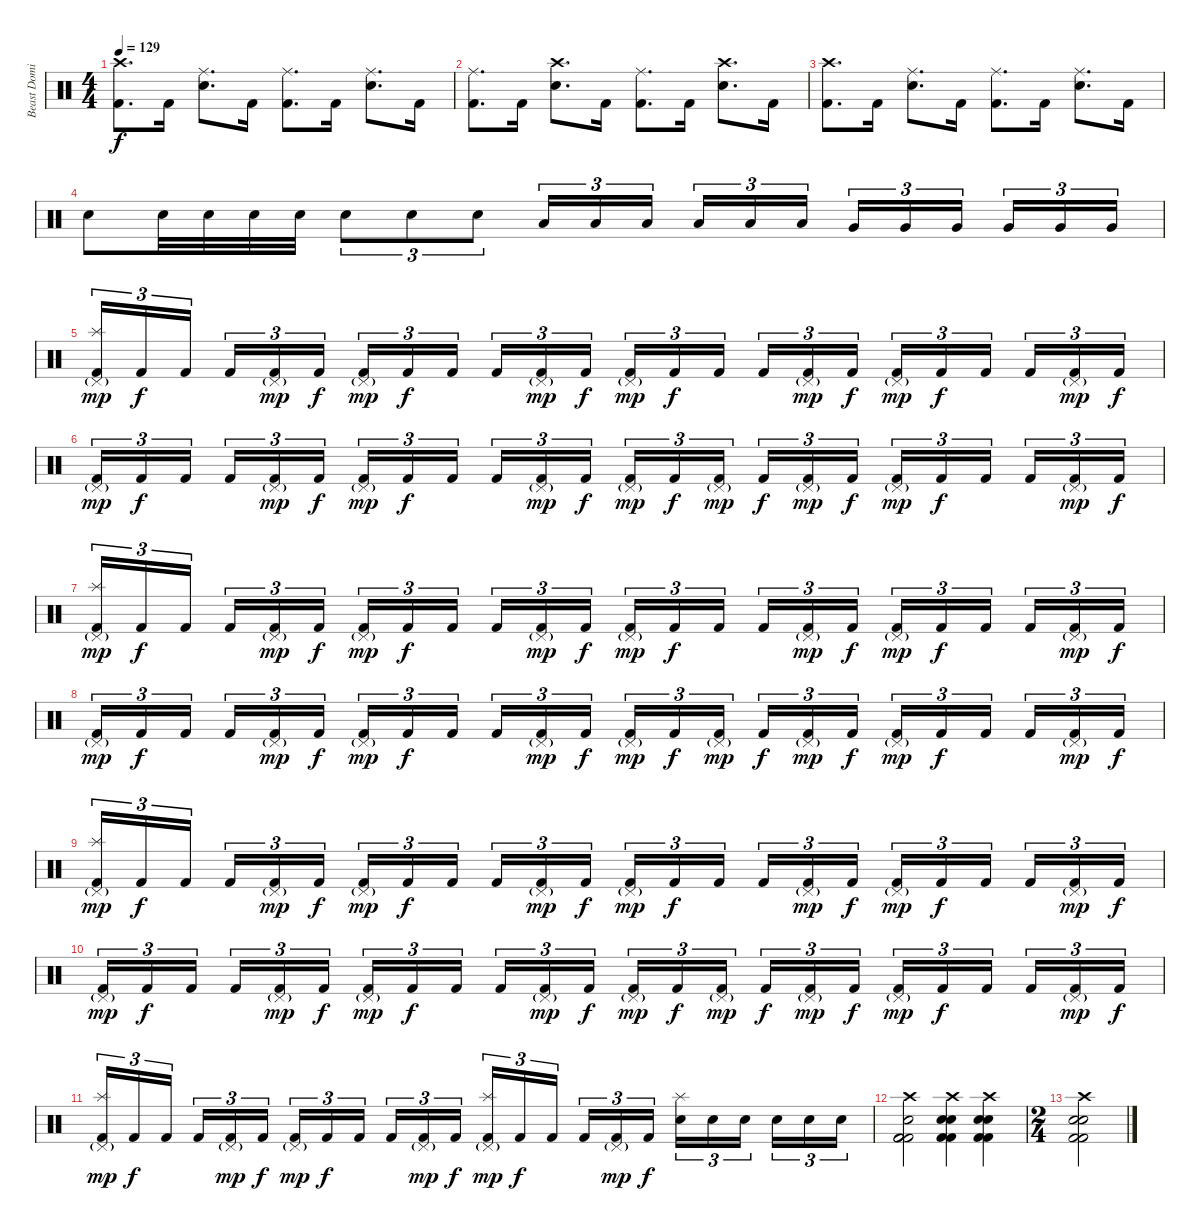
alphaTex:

\track ("Beast Dominator" "Beast Domi") {instrument percussion}
\staff
\articulation defaults
\ts (4 4)
\tempo 129
\clef neutral
\ks c
("Crash high (hit)" "Kick (hit) 2").8{d dy f} "Kick (hit) 2".16 ("Ride (middle)" "Electric Snare (hit)").8{d} "Kick (hit) 2".16 ("Ride (middle)" "Kick (hit) 2").8{d} "Kick (hit) 2".16 ("Ride (middle)" "Electric Snare (hit)").8{d} "Kick (hit) 2".16 |
("Ride (middle)" "Kick (hit) 2").8{d} "Kick (hit) 2".16 ("Crash high (hit)" "Electric Snare (hit)").8{d} "Kick (hit) 2".16 ("Ride (middle)" "Kick (hit) 2").8{d} "Kick (hit) 2".16 ("Crash high (hit)" "Electric Snare (hit)").8{d} "Kick (hit) 2".16 |
("Crash high (hit)" "Kick (hit) 2").8{d} "Kick (hit) 2".16 ("Ride (middle)" "Electric Snare (hit)").8{d} "Kick (hit) 2".16 ("Ride (middle)" "Kick (hit) 2").8{d} "Kick (hit) 2".16 ("Ride (middle)" "Electric Snare (hit)").8{d} "Kick (hit) 2".16 |
"Electric Snare (hit)".8 "Electric Snare (hit)".32 "Electric Snare (hit)".32 "Electric Snare (hit)".32 "Electric Snare (hit)".32 "Electric Snare (hit)".8{tu (3 2)} "Electric Snare (hit)".8{tu (3 2)} "Electric Snare (hit)".8{tu (3 2)} "Low Tom (hit)".16{tu (3 2)} "Low Tom (hit)".16{tu (3 2)} "Low Tom (hit)".16{tu (3 2) beam splitsecondary} "Low Tom (hit)".16{tu (3 2)} "Low Tom (hit)".16{tu (3 2)} "Low Tom (hit)".16{tu (3 2)} "Very Low Tom (hit)".16{tu (3 2)} "Very Low Tom (hit)".16{tu (3 2)} "Very Low Tom (hit)".16{tu (3 2) beam splitsecondary} "Very Low Tom (hit)".16{tu (3 2)} "Very Low Tom (hit)".16{tu (3 2)} "Very Low Tom (hit)".16{tu (3 2)} |
("Splash (hit)" "Pedal Hi-Hat (hit)"{g} "Kick (hit) 2").16{tu (3 2) dy mp} "Kick (hit) 2".16{tu (3 2) dy f} "Kick (hit) 2".16{tu (3 2) beam splitsecondary} "Kick (hit) 2".16{tu (3 2)} ("Pedal Hi-Hat (hit)"{g} "Kick (hit) 2").16{tu (3 2) dy mp} "Kick (hit) 2".16{tu (3 2) dy f} ("Pedal Hi-Hat (hit)"{g} "Kick (hit) 2").16{tu (3 2) dy mp} "Kick (hit) 2".16{tu (3 2) dy f} "Kick (hit) 2".16{tu (3 2) beam splitsecondary} "Kick (hit) 2".16{tu (3 2)} ("Pedal Hi-Hat (hit)"{g} "Kick (hit) 2").16{tu (3 2) dy mp} "Kick (hit) 2".16{tu (3 2) dy f} ("Pedal Hi-Hat (hit)"{g} "Kick (hit) 2").16{tu (3 2) dy mp} "Kick (hit) 2".16{tu (3 2) dy f} "Kick (hit) 2".16{tu (3 2) beam splitsecondary} "Kick (hit) 2".16{tu (3 2)} ("Pedal Hi-Hat (hit)"{g} "Kick (hit) 2").16{tu (3 2) dy mp} "Kick (hit) 2".16{tu (3 2) dy f} ("Pedal Hi-Hat (hit)"{g} "Kick (hit) 2").16{tu (3 2) dy mp} "Kick (hit) 2".16{tu (3 2) dy f} "Kick (hit) 2".16{tu (3 2) beam splitsecondary} "Kick (hit) 2".16{tu (3 2)} ("Pedal Hi-Hat (hit)"{g} "Kick (hit) 2").16{tu (3 2) dy mp} "Kick (hit) 2".16{tu (3 2) dy f} |
("Pedal Hi-Hat (hit)"{g} "Kick (hit) 2").16{tu (3 2) dy mp} "Kick (hit) 2".16{tu (3 2) dy f} "Kick (hit) 2".16{tu (3 2) beam splitsecondary} "Kick (hit) 2".16{tu (3 2)} ("Pedal Hi-Hat (hit)"{g} "Kick (hit) 2").16{tu (3 2) dy mp} "Kick (hit) 2".16{tu (3 2) dy f} ("Pedal Hi-Hat (hit)"{g} "Kick (hit) 2").16{tu (3 2) dy mp} "Kick (hit) 2".16{tu (3 2) dy f} "Kick (hit) 2".16{tu (3 2) beam splitsecondary} "Kick (hit) 2".16{tu (3 2)} ("Pedal Hi-Hat (hit)"{g} "Kick (hit) 2").16{tu (3 2) dy mp} "Kick (hit) 2".16{tu (3 2) dy f} ("Pedal Hi-Hat (hit)"{g} "Kick (hit) 2").16{tu (3 2) dy mp} "Kick (hit) 2".16{tu (3 2) dy f} ("Pedal Hi-Hat (hit)"{g} "Kick (hit) 2").16{tu (3 2) dy mp beam splitsecondary} "Kick (hit) 2".16{tu (3 2) dy f} ("Pedal Hi-Hat (hit)"{g} "Kick (hit) 2").16{tu (3 2) dy mp} "Kick (hit) 2".16{tu (3 2) dy f} ("Pedal Hi-Hat (hit)"{g} "Kick (hit) 2").16{tu (3 2) dy mp} "Kick (hit) 2".16{tu (3 2) dy f} "Kick (hit) 2".16{tu (3 2) beam splitsecondary} "Kick (hit) 2".16{tu (3 2)} ("Pedal Hi-Hat (hit)"{g} "Kick (hit) 2").16{tu (3 2) dy mp} "Kick (hit) 2".16{tu (3 2) dy f} |
("Splash (hit)" "Pedal Hi-Hat (hit)"{g} "Kick (hit) 2").16{tu (3 2) dy mp} "Kick (hit) 2".16{tu (3 2) dy f} "Kick (hit) 2".16{tu (3 2) beam splitsecondary} "Kick (hit) 2".16{tu (3 2)} ("Pedal Hi-Hat (hit)"{g} "Kick (hit) 2").16{tu (3 2) dy mp} "Kick (hit) 2".16{tu (3 2) dy f} ("Pedal Hi-Hat (hit)"{g} "Kick (hit) 2").16{tu (3 2) dy mp} "Kick (hit) 2".16{tu (3 2) dy f} "Kick (hit) 2".16{tu (3 2) beam splitsecondary} "Kick (hit) 2".16{tu (3 2)} ("Pedal Hi-Hat (hit)"{g} "Kick (hit) 2").16{tu (3 2) dy mp} "Kick (hit) 2".16{tu (3 2) dy f} ("Pedal Hi-Hat (hit)"{g} "Kick (hit) 2").16{tu (3 2) dy mp} "Kick (hit) 2".16{tu (3 2) dy f} "Kick (hit) 2".16{tu (3 2) beam splitsecondary} "Kick (hit) 2".16{tu (3 2)} ("Pedal Hi-Hat (hit)"{g} "Kick (hit) 2").16{tu (3 2) dy mp} "Kick (hit) 2".16{tu (3 2) dy f} ("Pedal Hi-Hat (hit)"{g} "Kick (hit) 2").16{tu (3 2) dy mp} "Kick (hit) 2".16{tu (3 2) dy f} "Kick (hit) 2".16{tu (3 2) beam splitsecondary} "Kick (hit) 2".16{tu (3 2)} ("Pedal Hi-Hat (hit)"{g} "Kick (hit) 2").16{tu (3 2) dy mp} "Kick (hit) 2".16{tu (3 2) dy f} |
("Pedal Hi-Hat (hit)"{g} "Kick (hit) 2").16{tu (3 2) dy mp} "Kick (hit) 2".16{tu (3 2) dy f} "Kick (hit) 2".16{tu (3 2) beam splitsecondary} "Kick (hit) 2".16{tu (3 2)} ("Pedal Hi-Hat (hit)"{g} "Kick (hit) 2").16{tu (3 2) dy mp} "Kick (hit) 2".16{tu (3 2) dy f} ("Pedal Hi-Hat (hit)"{g} "Kick (hit) 2").16{tu (3 2) dy mp} "Kick (hit) 2".16{tu (3 2) dy f} "Kick (hit) 2".16{tu (3 2) beam splitsecondary} "Kick (hit) 2".16{tu (3 2)} ("Pedal Hi-Hat (hit)"{g} "Kick (hit) 2").16{tu (3 2) dy mp} "Kick (hit) 2".16{tu (3 2) dy f} ("Pedal Hi-Hat (hit)"{g} "Kick (hit) 2").16{tu (3 2) dy mp} "Kick (hit) 2".16{tu (3 2) dy f} ("Pedal Hi-Hat (hit)"{g} "Kick (hit) 2").16{tu (3 2) dy mp beam splitsecondary} "Kick (hit) 2".16{tu (3 2) dy f} ("Pedal Hi-Hat (hit)"{g} "Kick (hit) 2").16{tu (3 2) dy mp} "Kick (hit) 2".16{tu (3 2) dy f} ("Pedal Hi-Hat (hit)"{g} "Kick (hit) 2").16{tu (3 2) dy mp} "Kick (hit) 2".16{tu (3 2) dy f} "Kick (hit) 2".16{tu (3 2) beam splitsecondary} "Kick (hit) 2".16{tu (3 2)} ("Pedal Hi-Hat (hit)"{g} "Kick (hit) 2").16{tu (3 2) dy mp} "Kick (hit) 2".16{tu (3 2) dy f} |
("Splash (hit)" "Pedal Hi-Hat (hit)"{g} "Kick (hit) 2").16{tu (3 2) dy mp} "Kick (hit) 2".16{tu (3 2) dy f} "Kick (hit) 2".16{tu (3 2) beam splitsecondary} "Kick (hit) 2".16{tu (3 2)} ("Pedal Hi-Hat (hit)"{g} "Kick (hit) 2").16{tu (3 2) dy mp} "Kick (hit) 2".16{tu (3 2) dy f} ("Pedal Hi-Hat (hit)"{g} "Kick (hit) 2").16{tu (3 2) dy mp} "Kick (hit) 2".16{tu (3 2) dy f} "Kick (hit) 2".16{tu (3 2) beam splitsecondary} "Kick (hit) 2".16{tu (3 2)} ("Pedal Hi-Hat (hit)"{g} "Kick (hit) 2").16{tu (3 2) dy mp} "Kick (hit) 2".16{tu (3 2) dy f} ("Pedal Hi-Hat (hit)"{g} "Kick (hit) 2").16{tu (3 2) dy mp} "Kick (hit) 2".16{tu (3 2) dy f} "Kick (hit) 2".16{tu (3 2) beam splitsecondary} "Kick (hit) 2".16{tu (3 2)} ("Pedal Hi-Hat (hit)"{g} "Kick (hit) 2").16{tu (3 2) dy mp} "Kick (hit) 2".16{tu (3 2) dy f} ("Pedal Hi-Hat (hit)"{g} "Kick (hit) 2").16{tu (3 2) dy mp} "Kick (hit) 2".16{tu (3 2) dy f} "Kick (hit) 2".16{tu (3 2) beam splitsecondary} "Kick (hit) 2".16{tu (3 2)} ("Pedal Hi-Hat (hit)"{g} "Kick (hit) 2").16{tu (3 2) dy mp} "Kick (hit) 2".16{tu (3 2) dy f} |
("Pedal Hi-Hat (hit)"{g} "Kick (hit) 2").16{tu (3 2) dy mp} "Kick (hit) 2".16{tu (3 2) dy f} "Kick (hit) 2".16{tu (3 2) beam splitsecondary} "Kick (hit) 2".16{tu (3 2)} ("Pedal Hi-Hat (hit)"{g} "Kick (hit) 2").16{tu (3 2) dy mp} "Kick (hit) 2".16{tu (3 2) dy f} ("Pedal Hi-Hat (hit)"{g} "Kick (hit) 2").16{tu (3 2) dy mp} "Kick (hit) 2".16{tu (3 2) dy f} "Kick (hit) 2".16{tu (3 2) beam splitsecondary} "Kick (hit) 2".16{tu (3 2)} ("Pedal Hi-Hat (hit)"{g} "Kick (hit) 2").16{tu (3 2) dy mp} "Kick (hit) 2".16{tu (3 2) dy f} ("Pedal Hi-Hat (hit)"{g} "Kick (hit) 2").16{tu (3 2) dy mp} "Kick (hit) 2".16{tu (3 2) dy f} ("Pedal Hi-Hat (hit)"{g} "Kick (hit) 2").16{tu (3 2) dy mp beam splitsecondary} "Kick (hit) 2".16{tu (3 2) dy f} ("Pedal Hi-Hat (hit)"{g} "Kick (hit) 2").16{tu (3 2) dy mp} "Kick (hit) 2".16{tu (3 2) dy f} ("Pedal Hi-Hat (hit)"{g} "Kick (hit) 2").16{tu (3 2) dy mp} "Kick (hit) 2".16{tu (3 2) dy f} "Kick (hit) 2".16{tu (3 2) beam splitsecondary} "Kick (hit) 2".16{tu (3 2)} ("Pedal Hi-Hat (hit)"{g} "Kick (hit) 2").16{tu (3 2) dy mp} "Kick (hit) 2".16{tu (3 2) dy f} |
("Splash (hit)" "Pedal Hi-Hat (hit)"{g} "Kick (hit) 2").16{tu (3 2) dy mp} "Kick (hit) 2".16{tu (3 2) dy f} "Kick (hit) 2".16{tu (3 2) beam splitsecondary} "Kick (hit) 2".16{tu (3 2)} ("Pedal Hi-Hat (hit)"{g} "Kick (hit) 2").16{tu (3 2) dy mp} "Kick (hit) 2".16{tu (3 2) dy f} ("Pedal Hi-Hat (hit)"{g} "Kick (hit) 2").16{tu (3 2) dy mp} "Kick (hit) 2".16{tu (3 2) dy f} "Kick (hit) 2".16{tu (3 2) beam splitsecondary} "Kick (hit) 2".16{tu (3 2)} ("Pedal Hi-Hat (hit)"{g} "Kick (hit) 2").16{tu (3 2) dy mp} "Kick (hit) 2".16{tu (3 2) dy f} ("Splash (hit)" "Pedal Hi-Hat (hit)"{g} "Kick (hit) 2").16{tu (3 2) dy mp} "Kick (hit) 2".16{tu (3 2) dy f} "Kick (hit) 2".16{tu (3 2) beam splitsecondary} "Kick (hit) 2".16{tu (3 2)} ("Pedal Hi-Hat (hit)"{g} "Kick (hit) 2").16{tu (3 2) dy mp} "Kick (hit) 2".16{tu (3 2) dy f} ("Splash (hit)" "Electric Snare (hit)").16{tu (3 2)} "Electric Snare (hit)".16{tu (3 2)} "Electric Snare (hit)".16{tu (3 2) beam splitsecondary} "Electric Snare (hit)".16{tu (3 2)} "Electric Snare (hit)".16{tu (3 2)} "Electric Snare (hit)".16{tu (3 2)} |
("Crash high (hit)" "Electric Snare (hit)" "Kick (hit) 2" "Kick (hit) 2" "Kick (hit) 2").2 ("Crash high (hit)" "Snare (hit) 2" "Electric Snare (hit)" "Kick (hit) 2" "Kick (hit) 2").4 ("Crash high (hit)" "Snare (hit) 2" "Electric Snare (hit)" "Kick (hit) 2" "Kick (hit) 2").4 |
\ts (2 4)
("Crash high (hit)" "Snare (hit) 2" "Electric Snare (hit)" "Kick (hit) 2" "Kick (hit) 2").2
